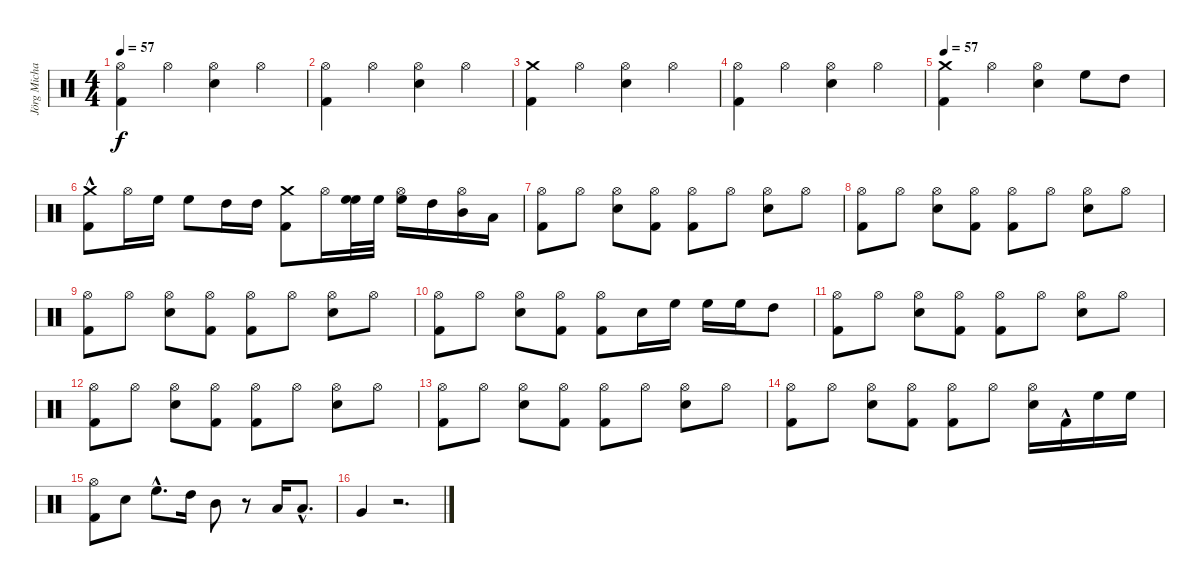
\track ("Jörg Michael" "Jörg Micha") {instrument percussion}
\staff {score}
\articulation defaults
\ts (4 4)
\tempo 57
\clef neutral
\ks c
("Kick (hit) 2" "Hi-Hat (open)").4{dy f} "Hi-Hat (open)".4 ("Snare (hit) 2" "Hi-Hat (open)").4 "Hi-Hat (open)".4 |
("Kick (hit) 2" "Hi-Hat (open)").4 "Hi-Hat (open)".4 ("Snare (hit) 2" "Hi-Hat (open)").4 "Hi-Hat (open)".4 |
("Kick (hit) 2" "Crash medium (hit)").4 "Hi-Hat (open)".4 ("Snare (hit) 2" "Hi-Hat (open)").4 "Hi-Hat (open)".4 |
("Kick (hit) 2" "Hi-Hat (open)").4 "Hi-Hat (open)".4 ("Snare (hit) 2" "Hi-Hat (open)").4 "Hi-Hat (open)".4 |
\tempo 57
("Kick (hit) 2" "Crash medium (hit)").4 "Hi-Hat (open)".4 ("Snare (hit) 2" "Hi-Hat (open)").4 "High Floor Tom (hit)".8 "High Tom (hit)".8 |
("Kick (hit) 2" "Crash medium (hit)"{hac}).8 "Hi-Hat (open)".16 "High Floor Tom (hit)".16 "High Floor Tom (hit)".8 "High Tom (hit)".16 "High Tom (hit)".16 ("Kick (hit) 2" "Crash medium (hit)").8 "Hi-Hat (open)".16 ("High Floor Tom (hit)" "High Floor Tom (hit)").32 "High Floor Tom (hit)".32 ("Hi-Hat (open)" "High Floor Tom (hit)").16 "High Tom (hit)".16 ("Hi-Hat (open)" "Mid Tom (hit)").16 "Low Tom (hit)".16 |
("Kick (hit) 2" "Hi-Hat (open)").8 "Hi-Hat (open)".8 ("Snare (hit) 2" "Hi-Hat (open)").8 ("Kick (hit) 2" "Hi-Hat (open)").8 ("Kick (hit) 2" "Hi-Hat (open)").8 "Hi-Hat (open)".8 ("Snare (hit) 2" "Hi-Hat (open)").8 "Hi-Hat (open)".8 |
("Kick (hit) 2" "Hi-Hat (open)").8 "Hi-Hat (open)".8 ("Snare (hit) 2" "Hi-Hat (open)").8 ("Kick (hit) 2" "Hi-Hat (open)").8 ("Kick (hit) 2" "Hi-Hat (open)").8 "Hi-Hat (open)".8 ("Snare (hit) 2" "Hi-Hat (open)").8 "Hi-Hat (open)".8 |
("Kick (hit) 2" "Hi-Hat (open)").8 "Hi-Hat (open)".8 ("Snare (hit) 2" "Hi-Hat (open)").8 ("Kick (hit) 2" "Hi-Hat (open)").8 ("Kick (hit) 2" "Hi-Hat (open)").8 "Hi-Hat (open)".8 ("Snare (hit) 2" "Hi-Hat (open)").8 "Hi-Hat (open)".8 |
("Kick (hit) 2" "Hi-Hat (open)").8 "Hi-Hat (open)".8 ("Snare (hit) 2" "Hi-Hat (open)").8 ("Kick (hit) 2" "Hi-Hat (open)").8 ("Hi-Hat (open)" "Kick (hit) 2").8 "Snare (hit) 2".16 "High Floor Tom (hit)".16 "High Floor Tom (hit)".16 "High Floor Tom (hit)".16 "High Tom (hit)".8 |
("Kick (hit) 2" "Hi-Hat (open)").8 "Hi-Hat (open)".8 ("Snare (hit) 2" "Hi-Hat (open)").8 ("Kick (hit) 2" "Hi-Hat (open)").8 ("Kick (hit) 2" "Hi-Hat (open)").8 "Hi-Hat (open)".8 ("Snare (hit) 2" "Hi-Hat (open)").8 "Hi-Hat (open)".8 |
("Kick (hit) 2" "Hi-Hat (open)").8 "Hi-Hat (open)".8 ("Snare (hit) 2" "Hi-Hat (open)").8 ("Kick (hit) 2" "Hi-Hat (open)").8 ("Kick (hit) 2" "Hi-Hat (open)").8 "Hi-Hat (open)".8 ("Snare (hit) 2" "Hi-Hat (open)").8 "Hi-Hat (open)".8 |
("Kick (hit) 2" "Hi-Hat (open)").8 "Hi-Hat (open)".8 ("Snare (hit) 2" "Hi-Hat (open)").8 ("Kick (hit) 2" "Hi-Hat (open)").8 ("Kick (hit) 2" "Hi-Hat (open)").8 "Hi-Hat (open)".8 ("Snare (hit) 2" "Hi-Hat (open)").8 "Hi-Hat (open)".8 |
("Kick (hit) 2" "Hi-Hat (open)").8 "Hi-Hat (open)".8 ("Snare (hit) 2" "Hi-Hat (open)").8 ("Kick (hit) 2" "Hi-Hat (open)").8 ("Kick (hit) 2" "Hi-Hat (open)").8 "Hi-Hat (open)".8 ("Snare (hit) 2" "Hi-Hat (open)").16 "Kick (hit) 2"{hac}.16 "High Floor Tom (hit)".16 "High Floor Tom (hit)".16 |
("Hi-Hat (open)" "Kick (hit) 2").8 "Snare (hit) 2".8 "High Floor Tom (hit)"{hac}.8{d} "High Tom (hit)".16 "Mid Tom (hit)".8 r.8 "Low Tom (hit)".16 "Low Tom (hit)"{hac}.8{d} |
"Very Low Tom (hit)".4 r.2{d}
